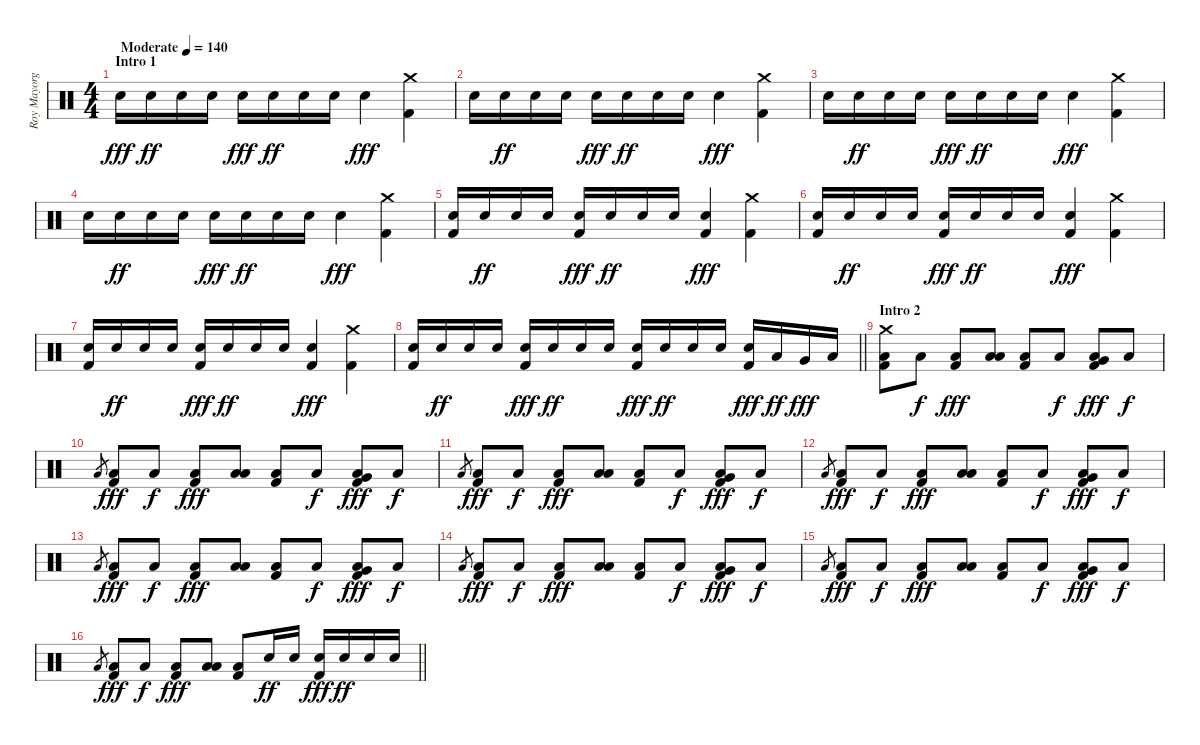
\track ("Roy Mayorga" "Roy Mayorg") {instrument percussion}
\staff {score}
\articulation defaults
\ts (4 4)
\section ("" "Intro 1")
\tempo (140 "Moderate")
\clef neutral
\ks c "Electric Snare (hit)".16{dy fff} "Electric Snare (hit)".16{dy ff} "Electric Snare (hit)".16 "Electric Snare (hit)".16 "Electric Snare (hit)".16{dy fff} "Electric Snare (hit)".16{dy ff} "Electric Snare (hit)".16 "Electric Snare (hit)".16 "Electric Snare (hit)".4{dy fff}
("Crash medium (hit)" "Kick (hit) 2").4 |
"Electric Snare (hit)".16 "Electric Snare (hit)".16{dy ff} "Electric Snare (hit)".16 "Electric Snare (hit)".16 "Electric Snare (hit)".16{dy fff} "Electric Snare (hit)".16{dy ff} "Electric Snare (hit)".16 "Electric Snare (hit)".16 "Electric Snare (hit)".4{dy fff} ("Crash medium (hit)" "Kick (hit) 2").4 |
"Electric Snare (hit)".16 "Electric Snare (hit)".16{dy ff} "Electric Snare (hit)".16 "Electric Snare (hit)".16 "Electric Snare (hit)".16{dy fff} "Electric Snare (hit)".16{dy ff} "Electric Snare (hit)".16 "Electric Snare (hit)".16 "Electric Snare (hit)".4{dy fff} ("Crash medium (hit)" "Kick (hit) 2").4 |
"Electric Snare (hit)".16 "Electric Snare (hit)".16{dy ff} "Electric Snare (hit)".16 "Electric Snare (hit)".16 "Electric Snare (hit)".16{dy fff} "Electric Snare (hit)".16{dy ff} "Electric Snare (hit)".16 "Electric Snare (hit)".16 "Electric Snare (hit)".4{dy fff} ("Crash medium (hit)" "Kick (hit) 2").4 |
("Electric Snare (hit)" "Kick (hit) 2").16 "Electric Snare (hit)".16{dy ff} "Electric Snare (hit)".16 "Electric Snare (hit)".16 ("Electric Snare (hit)" "Kick (hit) 2").16{dy fff} "Electric Snare (hit)".16{dy ff} "Electric Snare (hit)".16 "Electric Snare (hit)".16 ("Electric Snare (hit)" "Kick (hit) 2").4{dy fff} ("Crash medium (hit)" "Kick (hit) 2").4 |
("Electric Snare (hit)" "Kick (hit) 2").16 "Electric Snare (hit)".16{dy ff} "Electric Snare (hit)".16 "Electric Snare (hit)".16 ("Electric Snare (hit)" "Kick (hit) 2").16{dy fff} "Electric Snare (hit)".16{dy ff} "Electric Snare (hit)".16 "Electric Snare (hit)".16 ("Electric Snare (hit)" "Kick (hit) 2").4{dy fff} ("Crash medium (hit)" "Kick (hit) 2").4 |
("Electric Snare (hit)" "Kick (hit) 2").16 "Electric Snare (hit)".16{dy ff} "Electric Snare (hit)".16 "Electric Snare (hit)".16 ("Electric Snare (hit)" "Kick (hit) 2").16{dy fff} "Electric Snare (hit)".16{dy ff} "Electric Snare (hit)".16 "Electric Snare (hit)".16 ("Electric Snare (hit)" "Kick (hit) 2").4{dy fff} ("Crash medium (hit)" "Kick (hit) 2").4 |
\barLineRight lightlight
("Electric Snare (hit)" "Kick (hit) 2").16 "Electric Snare (hit)".16{dy ff} "Electric Snare (hit)".16 "Electric Snare (hit)".16 ("Electric Snare (hit)" "Kick (hit) 2").16{dy fff} "Electric Snare (hit)".16{dy ff} "Electric Snare (hit)".16 "Electric Snare (hit)".16 ("Electric Snare (hit)" "Kick (hit) 2").16{dy fff} "Electric Snare (hit)".16{dy ff} "Electric Snare (hit)".16 "Electric Snare (hit)".16 ("Electric Snare (hit)" "Kick (hit) 2").16{dy fff} "Low Tom (hit)".16{dy ff} "Very Low Tom (hit)".16{dy fff} "Low Floor Tom (hit)".16 |
\section ("" "Intro 2")
("Crash medium (hit)" "Low Floor Tom (hit)" "Kick (hit) 2").8 "Low Floor Tom (hit)".8{dy f} ("Low Floor Tom (hit)" "Kick (hit) 2").8{dy fff} ("Low Tom (hit)" "Low Floor Tom (hit)").8 ("Low Floor Tom (hit)" "Kick (hit) 2").8 "Low Floor Tom (hit)".8{dy f} ("Very Low Tom (hit)" "Low Floor Tom (hit)" "Kick (hit) 2").8{dy fff} "Low Floor Tom (hit)".8{dy f} |
"Low Floor Tom (hit)".8{gr} ("Low Floor Tom (hit)" "Kick (hit) 2").8{dy fff} "Low Floor Tom (hit)".8{dy f} ("Low Floor Tom (hit)" "Kick (hit) 2").8{dy fff} ("Low Tom (hit)" "Low Floor Tom (hit)").8 ("Low Floor Tom (hit)" "Kick (hit) 2").8 "Low Floor Tom (hit)".8{dy f} ("Very Low Tom (hit)" "Low Floor Tom (hit)" "Kick (hit) 2").8{dy fff} "Low Floor Tom (hit)".8{dy f} |
"Low Floor Tom (hit)".8{gr} ("Low Floor Tom (hit)" "Kick (hit) 2").8{dy fff} "Low Floor Tom (hit)".8{dy f} ("Low Floor Tom (hit)" "Kick (hit) 2").8{dy fff} ("Low Tom (hit)" "Low Floor Tom (hit)").8 ("Low Floor Tom (hit)" "Kick (hit) 2").8 "Low Floor Tom (hit)".8{dy f} ("Very Low Tom (hit)" "Low Floor Tom (hit)" "Kick (hit) 2").8{dy fff} "Low Floor Tom (hit)".8{dy f} |
"Low Floor Tom (hit)".8{gr} ("Low Floor Tom (hit)" "Kick (hit) 2").8{dy fff} "Low Floor Tom (hit)".8{dy f} ("Low Floor Tom (hit)" "Kick (hit) 2").8{dy fff} ("Low Tom (hit)" "Low Floor Tom (hit)").8 ("Low Floor Tom (hit)" "Kick (hit) 2").8 "Low Floor Tom (hit)".8{dy f} ("Very Low Tom (hit)" "Low Floor Tom (hit)" "Kick (hit) 2").8{dy fff} "Low Floor Tom (hit)".8{dy f} |
"Low Floor Tom (hit)".8{gr} ("Low Floor Tom (hit)" "Kick (hit) 2").8{dy fff} "Low Floor Tom (hit)".8{dy f} ("Low Floor Tom (hit)" "Kick (hit) 2").8{dy fff} ("Low Tom (hit)" "Low Floor Tom (hit)").8 ("Low Floor Tom (hit)" "Kick (hit) 2").8 "Low Floor Tom (hit)".8{dy f} ("Very Low Tom (hit)" "Low Floor Tom (hit)" "Kick (hit) 2").8{dy fff} "Low Floor Tom (hit)".8{dy f} |
"Low Floor Tom (hit)".8{gr} ("Low Floor Tom (hit)" "Kick (hit) 2").8{dy fff} "Low Floor Tom (hit)".8{dy f} ("Low Floor Tom (hit)" "Kick (hit) 2").8{dy fff} ("Low Tom (hit)" "Low Floor Tom (hit)").8 ("Low Floor Tom (hit)" "Kick (hit) 2").8 "Low Floor Tom (hit)".8{dy f} ("Very Low Tom (hit)" "Low Floor Tom (hit)" "Kick (hit) 2").8{dy fff} "Low Floor Tom (hit)".8{dy f} |
"Low Floor Tom (hit)".8{gr} ("Low Floor Tom (hit)" "Kick (hit) 2").8{dy fff} "Low Floor Tom (hit)".8{dy f} ("Low Floor Tom (hit)" "Kick (hit) 2").8{dy fff} ("Low Tom (hit)" "Low Floor Tom (hit)").8 ("Low Floor Tom (hit)" "Kick (hit) 2").8 "Low Floor Tom (hit)".8{dy f} ("Very Low Tom (hit)" "Low Floor Tom (hit)" "Kick (hit) 2").8{dy fff} "Low Floor Tom (hit)".8{dy f} |
\barLineRight lightlight "Low Floor Tom (hit)".8{gr}
("Low Floor Tom (hit)" "Kick (hit) 2").8{dy fff} "Low Floor Tom (hit)".8{dy f} ("Low Floor Tom (hit)" "Kick (hit) 2").8{dy fff} ("Low Tom (hit)" "Low Floor Tom (hit)").8 ("Low Floor Tom (hit)" "Kick (hit) 2").8 "Electric Snare (hit)".16{dy ff} "Electric Snare (hit)".16 ("Electric Snare (hit)" "Kick (hit) 2").16{dy fff} "Electric Snare (hit)".16{dy ff} "Electric Snare (hit)".16 "Electric Snare (hit)".16
